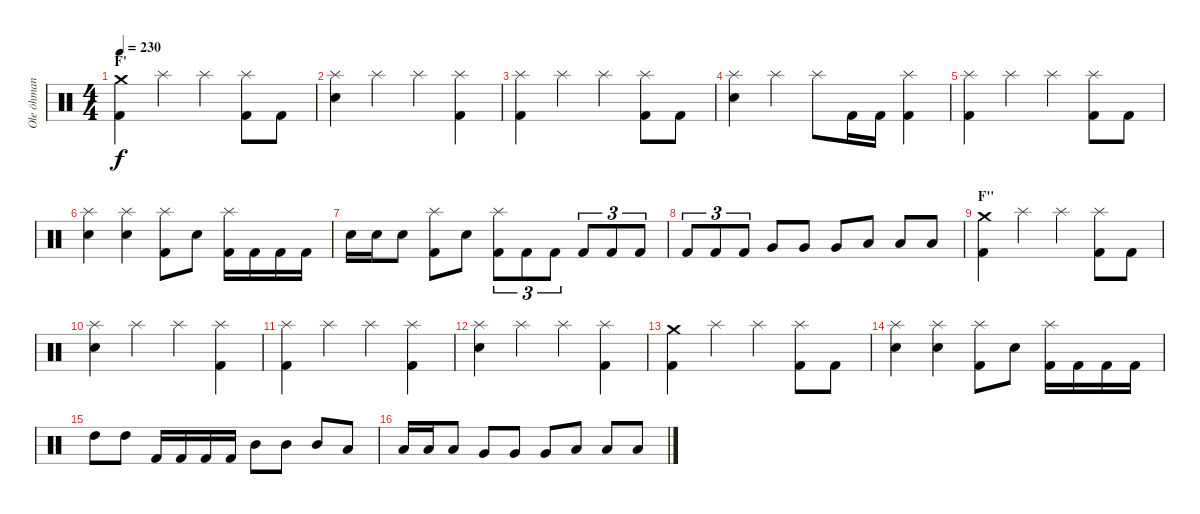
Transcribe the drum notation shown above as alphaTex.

\track ("Ole öhman" "Ole öhman") {instrument percussion}
\staff {score}
\articulation defaults
\ts (4 4)
\section ("" "F'")
\tempo 230
\clef neutral
\ks c
("Crash medium (hit)" "Kick (hit) 2").4{dy f} "Splash (hit)".4 "Splash (hit)".4 ("Splash (hit)" "Kick (hit) 2").8 "Kick (hit) 2".8 |
("Splash (hit)" "Electric Snare (hit)").4 "Splash (hit)".4 "Splash (hit)".4 ("Splash (hit)" "Kick (hit) 2").4 |
("Splash (hit)" "Kick (hit) 2").4 "Splash (hit)".4 "Splash (hit)".4 ("Splash (hit)" "Kick (hit) 2").8 "Kick (hit) 2".8 |
("Splash (hit)" "Electric Snare (hit)").4 "Splash (hit)".4 "Splash (hit)".8 "Kick (hit) 2".16 "Kick (hit) 2".16 ("Splash (hit)" "Kick (hit) 2").4 |
("Splash (hit)" "Kick (hit) 2").4 "Splash (hit)".4 "Splash (hit)".4 ("Splash (hit)" "Kick (hit) 2").8 "Kick (hit) 2".8 |
("Splash (hit)" "Electric Snare (hit)").4 ("Splash (hit)" "Electric Snare (hit)").4 ("Splash (hit)" "Kick (hit) 2").8 "Electric Snare (hit)".8 ("Splash (hit)" "Kick (hit) 2").16 "Kick (hit) 2".16 "Kick (hit) 2".16 "Kick (hit) 2".16 |
"Electric Snare (hit)".16 "Electric Snare (hit)".16 "Electric Snare (hit)".8 ("Splash (hit)" "Kick (hit) 2").8 "Electric Snare (hit)".8 ("Splash (hit)" "Kick (hit) 2").8{tu (3 2)} "Kick (hit) 2".8{tu (3 2)} "Kick (hit) 2".8{tu (3 2)} "Kick (hit) 2".8{tu (3 2)} "Kick (hit) 2".8{tu (3 2)} "Kick (hit) 2".8{tu (3 2)} |
"Kick (hit) 2".8{tu (3 2)} "Kick (hit) 2".8{tu (3 2)} "Kick (hit) 2".8{tu (3 2)} "Very Low Tom (hit)".8 "Very Low Tom (hit)".8 "Very Low Tom (hit)".8 "Low Floor Tom (hit)".8 "Low Floor Tom (hit)".8 "Low Floor Tom (hit)".8 |
\section ("" "F''")
("Crash medium (hit)" "Kick (hit) 2").4 "Splash (hit)".4 "Splash (hit)".4 ("Splash (hit)" "Kick (hit) 2").8 "Kick (hit) 2".8 |
("Splash (hit)" "Electric Snare (hit)").4 "Splash (hit)".4 "Splash (hit)".4 ("Splash (hit)" "Kick (hit) 2").4 |
("Splash (hit)" "Kick (hit) 2").4 "Splash (hit)".4 "Splash (hit)".4 ("Splash (hit)" "Kick (hit) 2").4 |
("Splash (hit)" "Electric Snare (hit)").4 "Splash (hit)".4 "Splash (hit)".4 ("Splash (hit)" "Kick (hit) 2").4 |
("Crash medium (hit)" "Kick (hit) 2").4 "Splash (hit)".4 "Splash (hit)".4 ("Splash (hit)" "Kick (hit) 2").8 "Kick (hit) 2".8 |
("Splash (hit)" "Electric Snare (hit)").4 ("Splash (hit)" "Electric Snare (hit)").4 ("Splash (hit)" "Kick (hit) 2").8 "Electric Snare (hit)".8 ("Splash (hit)" "Kick (hit) 2").16 "Kick (hit) 2".16 "Kick (hit) 2".16 "Kick (hit) 2".16 |
"High Tom (hit)".8 "High Tom (hit)".8 "Kick (hit) 2".16 "Kick (hit) 2".16 "Kick (hit) 2".16 "Kick (hit) 2".16 "Mid Tom (hit)".8 "Mid Tom (hit)".8 "Mid Tom (hit)".8 "Low Tom (hit)".8 |
"Low Tom (hit)".16 "Low Tom (hit)".16 "Low Tom (hit)".8 "Very Low Tom (hit)".8 "Very Low Tom (hit)".8 "Very Low Tom (hit)".8 "Low Floor Tom (hit)".8 "Low Floor Tom (hit)".8 "Low Floor Tom (hit)".8
